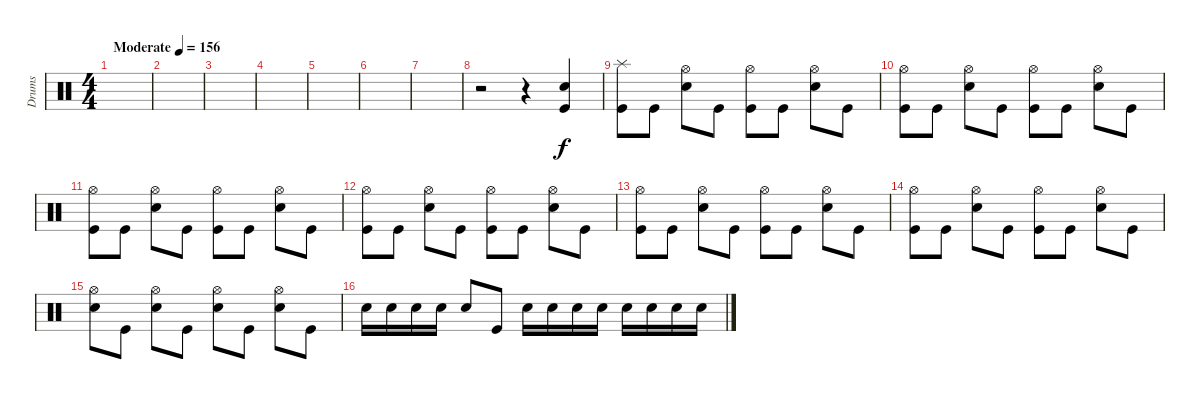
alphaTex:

\track ("Drums" "Drums") {instrument percussion}
\staff {score}
\articulation defaults
\ts (4 4)
\tempo (156 "Moderate")
\clef neutral
\ks c
|
|
|
|
|
|
|
r.2 r.4 ("Snare (hit) 2" "Kick (hit)").4 |
("Kick (hit)" "Splash (hit)").8 "Kick (hit)".8 ("Snare (hit) 2" "Hi-Hat (open)").8 "Kick (hit)".8 ("Kick (hit)" "Hi-Hat (open)").8 "Kick (hit)".8 ("Snare (hit) 2" "Hi-Hat (open)").8 "Kick (hit)".8 |
("Kick (hit)" "Hi-Hat (open)").8 "Kick (hit)".8 ("Snare (hit) 2" "Hi-Hat (open)").8 "Kick (hit)".8 ("Kick (hit)" "Hi-Hat (open)").8 "Kick (hit)".8 ("Snare (hit) 2" "Hi-Hat (open)").8 "Kick (hit)".8 |
("Kick (hit)" "Hi-Hat (open)").8 "Kick (hit)".8 ("Snare (hit) 2" "Hi-Hat (open)").8 "Kick (hit)".8 ("Kick (hit)" "Hi-Hat (open)").8 "Kick (hit)".8 ("Snare (hit) 2" "Hi-Hat (open)").8 "Kick (hit)".8 |
("Kick (hit)" "Hi-Hat (open)").8 "Kick (hit)".8 ("Snare (hit) 2" "Hi-Hat (open)").8 "Kick (hit)".8 ("Kick (hit)" "Hi-Hat (open)").8 "Kick (hit)".8 ("Snare (hit) 2" "Hi-Hat (open)").8 "Kick (hit)".8 |
("Kick (hit)" "Hi-Hat (open)").8 "Kick (hit)".8 ("Snare (hit) 2" "Hi-Hat (open)").8 "Kick (hit)".8 ("Kick (hit)" "Hi-Hat (open)").8 "Kick (hit)".8 ("Snare (hit) 2" "Hi-Hat (open)").8 "Kick (hit)".8 |
("Kick (hit)" "Hi-Hat (open)").8 "Kick (hit)".8 ("Snare (hit) 2" "Hi-Hat (open)").8 "Kick (hit)".8 ("Kick (hit)" "Hi-Hat (open)").8 "Kick (hit)".8 ("Snare (hit) 2" "Hi-Hat (open)").8 "Kick (hit)".8 |
("Snare (hit) 2" "Hi-Hat (open)").8 "Kick (hit)".8 ("Snare (hit) 2" "Hi-Hat (open)").8 "Kick (hit)".8 ("Snare (hit) 2" "Hi-Hat (open)").8 "Kick (hit)".8 ("Snare (hit) 2" "Hi-Hat (open)").8 "Kick (hit)".8 |
"Snare (hit) 2".16 "Snare (hit) 2".16 "Snare (hit) 2".16 "Snare (hit) 2".16 "Snare (hit) 2".8 "Kick (hit)".8 "Snare (hit) 2".16 "Snare (hit) 2".16 "Snare (hit) 2".16 "Snare (hit) 2".16 "Snare (hit) 2".16 "Snare (hit) 2".16 "Snare (hit) 2".16 "Snare (hit) 2".16
